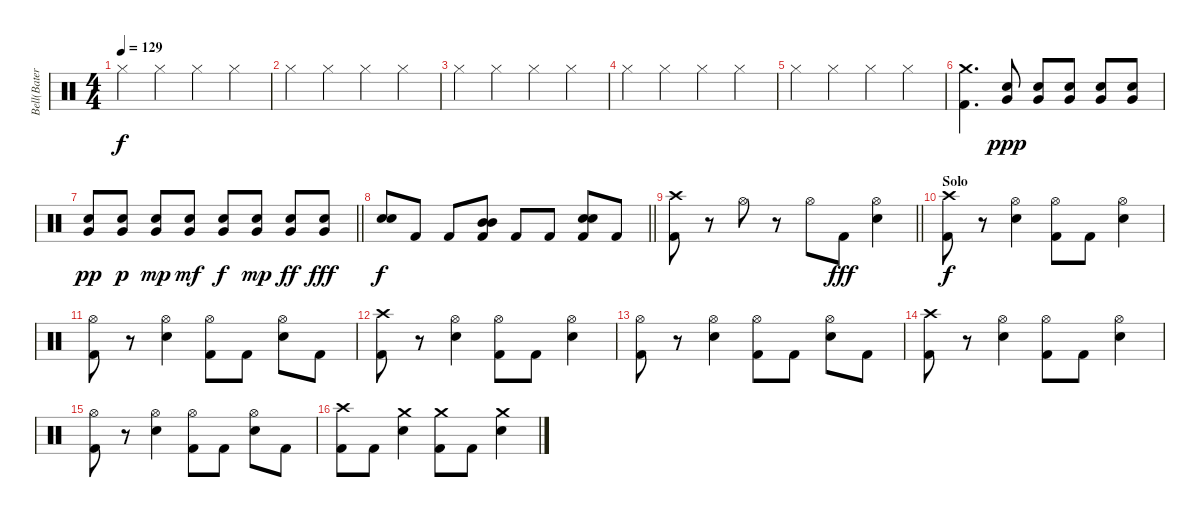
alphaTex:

\track ("Bell(Bateria)" "Bell(Bater") {instrument percussion}
\staff {score}
\articulation defaults
\ts (4 4)
\tempo 129
\clef neutral
\ks c "Hi-Hat (closed)".4{dy f} "Hi-Hat (closed)".4 "Hi-Hat (closed)".4 "Hi-Hat (closed)".4
|
"Hi-Hat (closed)".4 "Hi-Hat (closed)".4 "Hi-Hat (closed)".4 "Hi-Hat (closed)".4 |
"Hi-Hat (closed)".4 "Hi-Hat (closed)".4 "Hi-Hat (closed)".4 "Hi-Hat (closed)".4 |
"Hi-Hat (closed)".4 "Hi-Hat (closed)".4 "Hi-Hat (closed)".4 "Hi-Hat (closed)".4 |
"Hi-Hat (closed)".4 "Hi-Hat (closed)".4 "Hi-Hat (closed)".4 "Hi-Hat (closed)".4 |
("Crash medium (hit)" "Kick (hit) 2").4{d} ("Very Low Tom (hit)" "Electric Snare (hit)").8{dy ppp} ("Very Low Tom (hit)" "Electric Snare (hit)").8 ("Very Low Tom (hit)" "Electric Snare (hit)").8 ("Very Low Tom (hit)" "Electric Snare (hit)").8 ("Very Low Tom (hit)" "Electric Snare (hit)").8 |
\barLineRight lightlight
("Very Low Tom (hit)" "Electric Snare (hit)").8{dy pp} ("Very Low Tom (hit)" "Electric Snare (hit)").8{dy p} ("Very Low Tom (hit)" "Electric Snare (hit)").8{dy mp} ("Very Low Tom (hit)" "Electric Snare (hit)").8{dy mf} ("Very Low Tom (hit)" "Electric Snare (hit)").8{dy f} ("Very Low Tom (hit)" "Electric Snare (hit)").8{dy mp} ("Very Low Tom (hit)" "Electric Snare (hit)").8{dy ff} ("Very Low Tom (hit)" "Electric Snare (hit)").8{dy fff} |
\barLineRight lightlight
("Electric Snare (hit)" "Electric Snare (hit)").8{dy f} "Kick (hit) 2".8 "Kick (hit) 2".8 ("Mid Tom (hit)" "Mid Tom (hit)" "Kick (hit) 2").8 "Kick (hit) 2".8 "Kick (hit) 2".8 ("Electric Snare (hit)" "Electric Snare (hit)" "Kick (hit) 2").8 "Kick (hit) 2".8 |
\barLineRight lightlight
("Crash high (hit)" "Kick (hit) 2").8 r.8 "Hi-Hat (open)".8 r.8 "Hi-Hat (open)".8 "Kick (hit) 2".8{dy fff} ("Hi-Hat (open)" "Electric Snare (hit)").4 |
\section ("" "Solo")
("Crash high (hit)" "Kick (hit) 2").8{dy f} r.8 ("Hi-Hat (open)" "Electric Snare (hit)").4 ("Hi-Hat (open)" "Kick (hit) 2").8 "Kick (hit) 2".8 ("Hi-Hat (open)" "Electric Snare (hit)").4 |
("Hi-Hat (open)" "Kick (hit) 2").8 r.8 ("Hi-Hat (open)" "Electric Snare (hit)").4 ("Hi-Hat (open)" "Kick (hit) 2").8 "Kick (hit) 2".8 ("Hi-Hat (open)" "Electric Snare (hit)").8 "Kick (hit) 2".8 |
("Crash high (hit)" "Kick (hit) 2").8 r.8 ("Hi-Hat (open)" "Electric Snare (hit)").4 ("Hi-Hat (open)" "Kick (hit) 2").8 "Kick (hit) 2".8 ("Hi-Hat (open)" "Electric Snare (hit)").4 |
("Hi-Hat (open)" "Kick (hit) 2").8 r.8 ("Hi-Hat (open)" "Electric Snare (hit)").4 ("Hi-Hat (open)" "Kick (hit) 2").8 "Kick (hit) 2".8 ("Hi-Hat (open)" "Electric Snare (hit)").8 "Kick (hit) 2".8 |
("Crash high (hit)" "Kick (hit) 2").8 r.8 ("Hi-Hat (open)" "Electric Snare (hit)").4 ("Hi-Hat (open)" "Kick (hit) 2").8 "Kick (hit) 2".8 ("Hi-Hat (open)" "Electric Snare (hit)").4 |
("Hi-Hat (open)" "Kick (hit) 2").8 r.8 ("Hi-Hat (open)" "Electric Snare (hit)").4 ("Hi-Hat (open)" "Kick (hit) 2").8 "Kick (hit) 2".8 ("Hi-Hat (open)" "Electric Snare (hit)").8 "Kick (hit) 2".8 |
("Crash high (hit)" "Kick (hit) 2").8 "Kick (hit) 2".8 ("Crash medium (hit)" "Electric Snare (hit)").4 ("Crash medium (hit)" "Kick (hit) 2").8 "Kick (hit) 2".8 ("Crash medium (hit)" "Electric Snare (hit)").4
